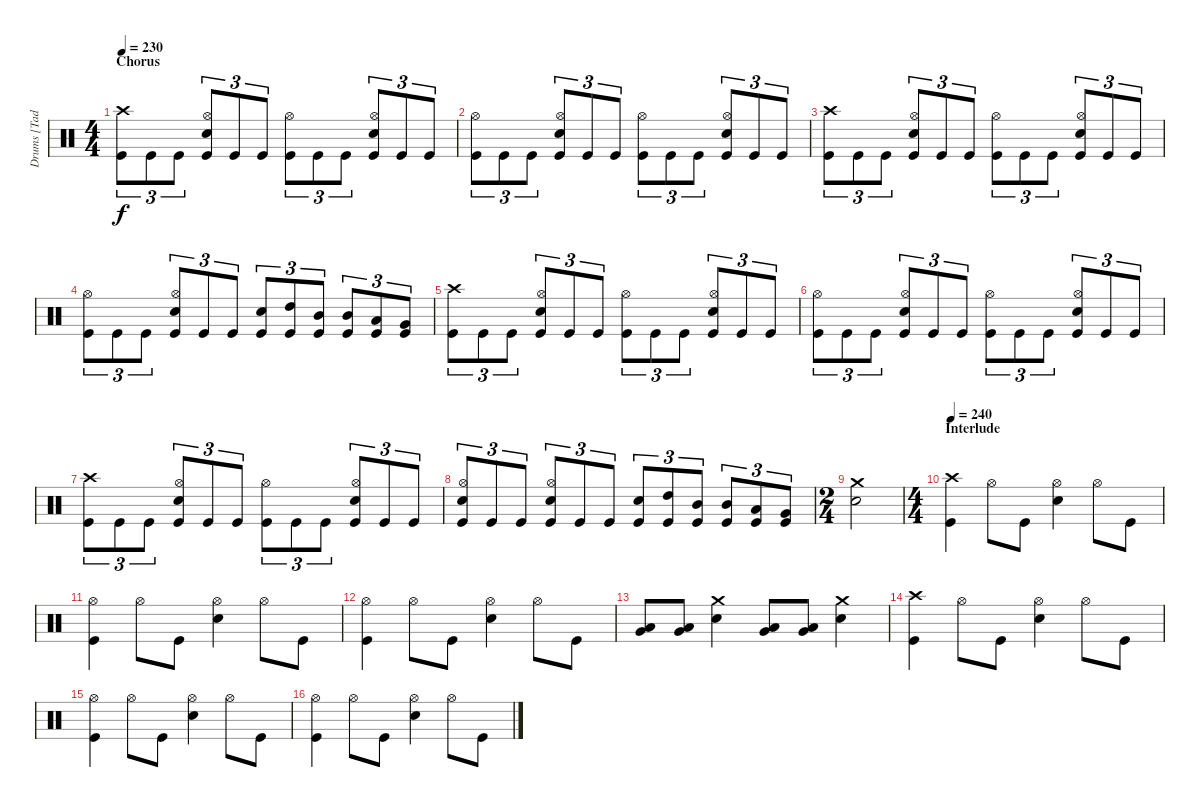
\track ("Drums [Tad Leger]" "Drums [Tad") {instrument percussion}
\staff {score}
\articulation defaults
\ts (4 4)
\section ("" "Chorus")
\tempo 230
\clef neutral
\ks c
("Crash high (hit)" "Kick (hit)").8{tu (3 2) dy f} "Kick (hit)".8{tu (3 2)} "Kick (hit)".8{tu (3 2)} ("Hi-Hat (open)" "Electric Snare (hit)" "Kick (hit)").8{tu (3 2)} "Kick (hit)".8{tu (3 2)} "Kick (hit)".8{tu (3 2)} ("Hi-Hat (open)" "Kick (hit)").8{tu (3 2)} "Kick (hit)".8{tu (3 2)} "Kick (hit)".8{tu (3 2)} ("Hi-Hat (open)" "Electric Snare (hit)" "Kick (hit)").8{tu (3 2)} "Kick (hit)".8{tu (3 2)} "Kick (hit)".8{tu (3 2)} |
("Hi-Hat (open)" "Kick (hit)").8{tu (3 2)} "Kick (hit)".8{tu (3 2)} "Kick (hit)".8{tu (3 2)} ("Hi-Hat (open)" "Electric Snare (hit)" "Kick (hit)").8{tu (3 2)} "Kick (hit)".8{tu (3 2)} "Kick (hit)".8{tu (3 2)} ("Hi-Hat (open)" "Kick (hit)").8{tu (3 2)} "Kick (hit)".8{tu (3 2)} "Kick (hit)".8{tu (3 2)} ("Hi-Hat (open)" "Electric Snare (hit)" "Kick (hit)").8{tu (3 2)} "Kick (hit)".8{tu (3 2)} "Kick (hit)".8{tu (3 2)} |
("Crash high (hit)" "Kick (hit)").8{tu (3 2)} "Kick (hit)".8{tu (3 2)} "Kick (hit)".8{tu (3 2)} ("Hi-Hat (open)" "Electric Snare (hit)" "Kick (hit)").8{tu (3 2)} "Kick (hit)".8{tu (3 2)} "Kick (hit)".8{tu (3 2)} ("Hi-Hat (open)" "Kick (hit)").8{tu (3 2)} "Kick (hit)".8{tu (3 2)} "Kick (hit)".8{tu (3 2)} ("Hi-Hat (open)" "Electric Snare (hit)" "Kick (hit)").8{tu (3 2)} "Kick (hit)".8{tu (3 2)} "Kick (hit)".8{tu (3 2)} |
("Hi-Hat (open)" "Kick (hit)").8{tu (3 2)} "Kick (hit)".8{tu (3 2)} "Kick (hit)".8{tu (3 2)} ("Hi-Hat (open)" "Electric Snare (hit)" "Kick (hit)").8{tu (3 2)} "Kick (hit)".8{tu (3 2)} "Kick (hit)".8{tu (3 2)} ("Electric Snare (hit)" "Kick (hit)").8{tu (3 2)} ("High Tom (hit)" "Kick (hit)").8{tu (3 2)} ("Mid Tom (hit)" "Kick (hit)").8{tu (3 2)} ("Mid Tom (hit)" "Kick (hit)").8{tu (3 2)} ("Low Tom (hit)" "Kick (hit)").8{tu (3 2)} ("Very Low Tom (hit)" "Kick (hit)").8{tu (3 2)} |
("Crash high (hit)" "Kick (hit)").8{tu (3 2)} "Kick (hit)".8{tu (3 2)} "Kick (hit)".8{tu (3 2)} ("Hi-Hat (open)" "Electric Snare (hit)" "Kick (hit)").8{tu (3 2)} "Kick (hit)".8{tu (3 2)} "Kick (hit)".8{tu (3 2)} ("Hi-Hat (open)" "Kick (hit)").8{tu (3 2)} "Kick (hit)".8{tu (3 2)} "Kick (hit)".8{tu (3 2)} ("Hi-Hat (open)" "Electric Snare (hit)" "Kick (hit)").8{tu (3 2)} "Kick (hit)".8{tu (3 2)} "Kick (hit)".8{tu (3 2)} |
("Hi-Hat (open)" "Kick (hit)").8{tu (3 2)} "Kick (hit)".8{tu (3 2)} "Kick (hit)".8{tu (3 2)} ("Hi-Hat (open)" "Electric Snare (hit)" "Kick (hit)").8{tu (3 2)} "Kick (hit)".8{tu (3 2)} "Kick (hit)".8{tu (3 2)} ("Hi-Hat (open)" "Kick (hit)").8{tu (3 2)} "Kick (hit)".8{tu (3 2)} "Kick (hit)".8{tu (3 2)} ("Hi-Hat (open)" "Electric Snare (hit)" "Kick (hit)").8{tu (3 2)} "Kick (hit)".8{tu (3 2)} "Kick (hit)".8{tu (3 2)} |
("Crash high (hit)" "Kick (hit)").8{tu (3 2)} "Kick (hit)".8{tu (3 2)} "Kick (hit)".8{tu (3 2)} ("Hi-Hat (open)" "Electric Snare (hit)" "Kick (hit)").8{tu (3 2)} "Kick (hit)".8{tu (3 2)} "Kick (hit)".8{tu (3 2)} ("Hi-Hat (open)" "Kick (hit)").8{tu (3 2)} "Kick (hit)".8{tu (3 2)} "Kick (hit)".8{tu (3 2)} ("Hi-Hat (open)" "Electric Snare (hit)" "Kick (hit)").8{tu (3 2)} "Kick (hit)".8{tu (3 2)} "Kick (hit)".8{tu (3 2)} |
("Hi-Hat (open)" "Electric Snare (hit)" "Kick (hit)").8{tu (3 2)} "Kick (hit)".8{tu (3 2)} "Kick (hit)".8{tu (3 2)} ("Hi-Hat (open)" "Electric Snare (hit)" "Kick (hit)").8{tu (3 2)} "Kick (hit)".8{tu (3 2)} "Kick (hit)".8{tu (3 2)} ("Electric Snare (hit)" "Kick (hit)").8{tu (3 2)} ("High Tom (hit)" "Kick (hit)").8{tu (3 2)} ("Mid Tom (hit)" "Kick (hit)").8{tu (3 2)} ("Mid Tom (hit)" "Kick (hit)").8{tu (3 2)} ("Low Tom (hit)" "Kick (hit)").8{tu (3 2)} ("Very Low Tom (hit)" "Kick (hit)").8{tu (3 2)} |
\ts (2 4)
("Crash medium (hit)" "Electric Snare (hit)").2 |
\ts (4 4)
\section ("" "Interlude")
\tempo 240
("Crash high (hit)" "Kick (hit)").4 "Hi-Hat (open)".8 "Kick (hit)".8 ("Hi-Hat (open)" "Electric Snare (hit)").4 "Hi-Hat (open)".8 "Kick (hit)".8 |
("Hi-Hat (open)" "Kick (hit)").4 "Hi-Hat (open)".8 "Kick (hit)".8 ("Hi-Hat (open)" "Electric Snare (hit)").4 "Hi-Hat (open)".8 "Kick (hit)".8 |
("Hi-Hat (open)" "Kick (hit)").4 "Hi-Hat (open)".8 "Kick (hit)".8 ("Hi-Hat (open)" "Electric Snare (hit)").4 "Hi-Hat (open)".8 "Kick (hit)".8 |
("Very Low Tom (hit)" "Low Tom (hit)").8 ("Very Low Tom (hit)" "Low Tom (hit)").8 ("Crash medium (hit)" "Electric Snare (hit)").4 ("Very Low Tom (hit)" "Low Tom (hit)").8 ("Very Low Tom (hit)" "Low Tom (hit)").8 ("Crash medium (hit)" "Electric Snare (hit)").4 |
("Crash high (hit)" "Kick (hit)").4 "Hi-Hat (open)".8 "Kick (hit)".8 ("Hi-Hat (open)" "Electric Snare (hit)").4 "Hi-Hat (open)".8 "Kick (hit)".8 |
("Hi-Hat (open)" "Kick (hit)").4 "Hi-Hat (open)".8 "Kick (hit)".8 ("Hi-Hat (open)" "Electric Snare (hit)").4 "Hi-Hat (open)".8 "Kick (hit)".8 |
("Hi-Hat (open)" "Kick (hit)").4 "Hi-Hat (open)".8 "Kick (hit)".8 ("Hi-Hat (open)" "Electric Snare (hit)").4 "Hi-Hat (open)".8 "Kick (hit)".8
